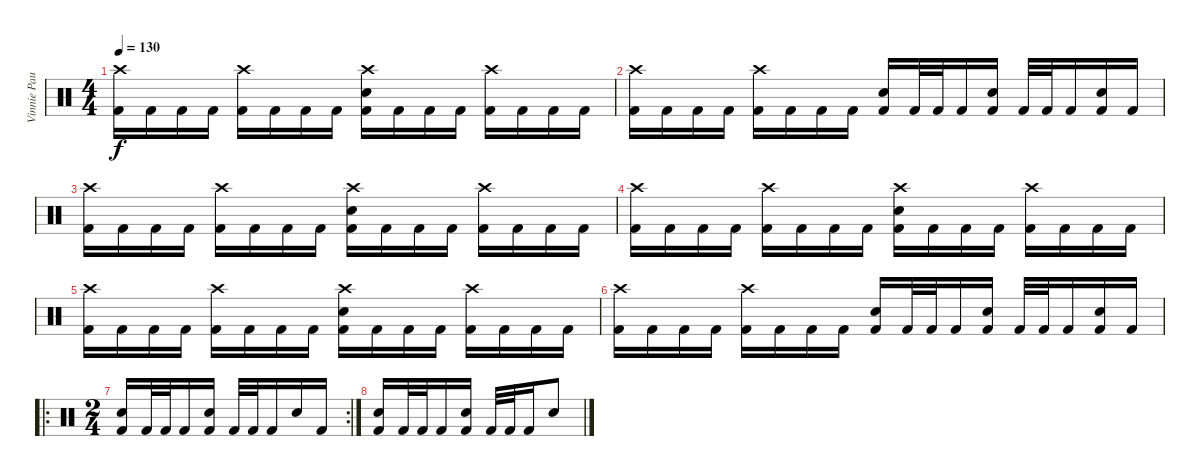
\track ("Vinnie Paul" "Vinnie Pau") {instrument percussion}
\staff {score}
\articulation defaults
\ts (4 4)
\tempo 130
\clef neutral
\ks c
("Crash high (hit)" "Kick (hit) 2").16{dy f} "Kick (hit) 2".16 "Kick (hit) 2".16 "Kick (hit) 2".16 ("Crash high (hit)" "Kick (hit) 2").16 "Kick (hit) 2".16 "Kick (hit) 2".16 "Kick (hit) 2".16 ("Crash high (hit)" "Snare (hit) 2" "Kick (hit) 2").16 "Kick (hit) 2".16 "Kick (hit) 2".16 "Kick (hit) 2".16 ("Crash high (hit)" "Kick (hit) 2").16 "Kick (hit) 2".16 "Kick (hit) 2".16 "Kick (hit) 2".16 |
("Crash high (hit)" "Kick (hit) 2").16 "Kick (hit) 2".16 "Kick (hit) 2".16 "Kick (hit) 2".16 ("Crash high (hit)" "Kick (hit) 2").16 "Kick (hit) 2".16 "Kick (hit) 2".16 "Kick (hit) 2".16 ("Snare (hit) 2" "Kick (hit) 2").16 "Kick (hit) 2".32 "Kick (hit) 2".32 "Kick (hit) 2".16 ("Snare (hit) 2" "Kick (hit) 2").16 "Kick (hit) 2".32 "Kick (hit) 2".32 "Kick (hit) 2".16 ("Snare (hit) 2" "Kick (hit) 2").16 "Kick (hit) 2".16 |
("Crash high (hit)" "Kick (hit) 2").16 "Kick (hit) 2".16 "Kick (hit) 2".16 "Kick (hit) 2".16 ("Crash high (hit)" "Kick (hit) 2").16 "Kick (hit) 2".16 "Kick (hit) 2".16 "Kick (hit) 2".16 ("Crash high (hit)" "Snare (hit) 2" "Kick (hit) 2").16 "Kick (hit) 2".16 "Kick (hit) 2".16 "Kick (hit) 2".16 ("Crash high (hit)" "Kick (hit) 2").16 "Kick (hit) 2".16 "Kick (hit) 2".16 "Kick (hit) 2".16 |
("Crash high (hit)" "Kick (hit) 2").16 "Kick (hit) 2".16 "Kick (hit) 2".16 "Kick (hit) 2".16 ("Crash high (hit)" "Kick (hit) 2").16 "Kick (hit) 2".16 "Kick (hit) 2".16 "Kick (hit) 2".16 ("Crash high (hit)" "Snare (hit) 2" "Kick (hit) 2").16 "Kick (hit) 2".16 "Kick (hit) 2".16 "Kick (hit) 2".16 ("Crash high (hit)" "Kick (hit) 2").16 "Kick (hit) 2".16 "Kick (hit) 2".16 "Kick (hit) 2".16 |
("Crash high (hit)" "Kick (hit) 2").16 "Kick (hit) 2".16 "Kick (hit) 2".16 "Kick (hit) 2".16 ("Crash high (hit)" "Kick (hit) 2").16 "Kick (hit) 2".16 "Kick (hit) 2".16 "Kick (hit) 2".16 ("Crash high (hit)" "Snare (hit) 2" "Kick (hit) 2").16 "Kick (hit) 2".16 "Kick (hit) 2".16 "Kick (hit) 2".16 ("Crash high (hit)" "Kick (hit) 2").16 "Kick (hit) 2".16 "Kick (hit) 2".16 "Kick (hit) 2".16 |
("Crash high (hit)" "Kick (hit) 2").16 "Kick (hit) 2".16 "Kick (hit) 2".16 "Kick (hit) 2".16 ("Crash high (hit)" "Kick (hit) 2").16 "Kick (hit) 2".16 "Kick (hit) 2".16 "Kick (hit) 2".16 ("Snare (hit) 2" "Kick (hit) 2").16 "Kick (hit) 2".32 "Kick (hit) 2".32 "Kick (hit) 2".16 ("Snare (hit) 2" "Kick (hit) 2").16 "Kick (hit) 2".32 "Kick (hit) 2".32 "Kick (hit) 2".16 ("Snare (hit) 2" "Kick (hit) 2").16 "Kick (hit) 2".16 |
\ro
\rc 2
\ts (2 4)
("Snare (hit) 2" "Kick (hit) 2").16 "Kick (hit) 2".32 "Kick (hit) 2".32 "Kick (hit) 2".16 ("Snare (hit) 2" "Kick (hit) 2").16 "Kick (hit) 2".32 "Kick (hit) 2".32 "Kick (hit) 2".16 "Snare (hit) 2".16 "Kick (hit) 2".16 |
("Snare (hit) 2" "Kick (hit) 2").16 "Kick (hit) 2".32 "Kick (hit) 2".32 "Kick (hit) 2".16 ("Snare (hit) 2" "Kick (hit) 2").16 "Kick (hit) 2".32 "Kick (hit) 2".32 "Kick (hit) 2".16 "Snare (hit) 2".8
